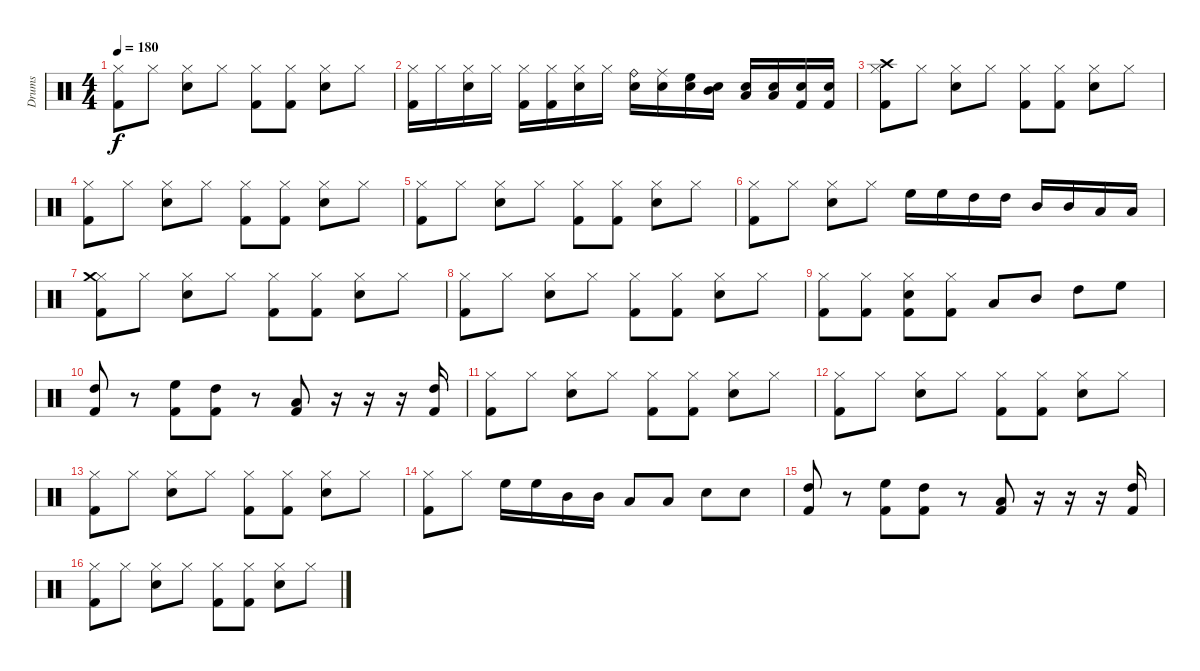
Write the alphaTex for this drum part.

\track ("Drums" "Drums") {instrument percussion}
\staff {score}
\articulation defaults
\ts (4 4)
\tempo 180
\clef neutral
\ks c
("Hi-Hat (closed)" "Kick (hit) 2").8{dy f} "Hi-Hat (closed)".8 ("Hi-Hat (closed)" "Snare (hit) 2").8 "Hi-Hat (closed)".8 ("Hi-Hat (closed)" "Kick (hit) 2").8 ("Hi-Hat (closed)" "Kick (hit) 2").8 ("Hi-Hat (closed)" "Snare (hit) 2").8 "Hi-Hat (closed)".8 |
("Hi-Hat (closed)" "Kick (hit) 2").16 "Hi-Hat (closed)".16 ("Hi-Hat (closed)" "Snare (hit) 2").16 "Hi-Hat (closed)".16 ("Hi-Hat (closed)" "Kick (hit) 2").16 ("Hi-Hat (closed)" "Kick (hit) 2").16 ("Hi-Hat (closed)" "Snare (hit) 2").16 "Hi-Hat (closed)".16 ("Ride (bell)" "Snare (hit) 2").16 ("Ride (middle)" "Snare (hit) 2").16 ("High Floor Tom (hit)" "Snare (hit) 2").16 ("Mid Tom (hit)" "Snare (hit) 2").16 ("Low Tom (hit)" "Snare (hit) 2").16 ("Low Floor Tom (hit)" "Snare (hit) 2").16 ("Kick (hit) 2" "Snare (hit) 2").16 ("Kick (hit) 2" "Snare (hit) 2").16 |
("Hi-Hat (closed)" "Crash high (hit)" "Kick (hit) 2").8 "Hi-Hat (closed)".8 ("Hi-Hat (closed)" "Snare (hit) 2").8 "Hi-Hat (closed)".8 ("Hi-Hat (closed)" "Kick (hit) 2").8 ("Hi-Hat (closed)" "Kick (hit) 2").8 ("Hi-Hat (closed)" "Snare (hit) 2").8 "Hi-Hat (closed)".8 |
("Hi-Hat (closed)" "Kick (hit) 2").8 "Hi-Hat (closed)".8 ("Hi-Hat (closed)" "Snare (hit) 2").8 "Hi-Hat (closed)".8 ("Hi-Hat (closed)" "Kick (hit) 2").8 ("Hi-Hat (closed)" "Kick (hit) 2").8 ("Hi-Hat (closed)" "Snare (hit) 2").8 "Hi-Hat (closed)".8 |
("Hi-Hat (closed)" "Kick (hit) 2").8 "Hi-Hat (closed)".8 ("Hi-Hat (closed)" "Snare (hit) 2").8 "Hi-Hat (closed)".8 ("Hi-Hat (closed)" "Kick (hit) 2").8 ("Hi-Hat (closed)" "Kick (hit) 2").8 ("Hi-Hat (closed)" "Snare (hit) 2").8 "Hi-Hat (closed)".8 |
("Hi-Hat (closed)" "Kick (hit) 2").8 "Hi-Hat (closed)".8 ("Hi-Hat (closed)" "Snare (hit) 2").8 "Hi-Hat (closed)".8 "High Floor Tom (hit)".16 "High Floor Tom (hit)".16 "High Tom (hit)".16 "High Tom (hit)".16 "Mid Tom (hit)".16 "Mid Tom (hit)".16 "Low Tom (hit)".16 "Low Tom (hit)".16 |
("Hi-Hat (closed)" "Crash medium (hit)" "Kick (hit) 2").8 "Hi-Hat (closed)".8 ("Hi-Hat (closed)" "Snare (hit) 2").8 "Hi-Hat (closed)".8 ("Hi-Hat (closed)" "Kick (hit) 2").8 ("Hi-Hat (closed)" "Kick (hit) 2").8 ("Hi-Hat (closed)" "Snare (hit) 2").8 "Hi-Hat (closed)".8 |
("Hi-Hat (closed)" "Kick (hit) 2").8 "Hi-Hat (closed)".8 ("Hi-Hat (closed)" "Snare (hit) 2").8 "Hi-Hat (closed)".8 ("Hi-Hat (closed)" "Kick (hit) 2").8 ("Hi-Hat (closed)" "Kick (hit) 2").8 ("Hi-Hat (closed)" "Snare (hit) 2").8 "Hi-Hat (closed)".8 |
("Hi-Hat (closed)" "Kick (hit) 2").8 ("Hi-Hat (closed)" "Kick (hit) 2").8 ("Hi-Hat (closed)" "Snare (hit) 2" "Kick (hit) 2").8 ("Hi-Hat (closed)" "Kick (hit) 2").8 "Low Tom (hit)".8 "Mid Tom (hit)".8 "High Tom (hit)".8 "High Floor Tom (hit)".8 |
("High Tom (hit)" "Kick (hit) 2").8 r.8 ("High Floor Tom (hit)" "Kick (hit) 2").8 ("High Tom (hit)" "Kick (hit) 2").8 r.8 ("Low Floor Tom (hit)" "Kick (hit) 2").8 r.16 r.16 r.16 ("High Tom (hit)" "Kick (hit) 2").16 |
("Hi-Hat (closed)" "Kick (hit) 2").8 "Hi-Hat (closed)".8 ("Hi-Hat (closed)" "Snare (hit) 2").8 "Hi-Hat (closed)".8 ("Hi-Hat (closed)" "Kick (hit) 2").8 ("Hi-Hat (closed)" "Kick (hit) 2").8 ("Hi-Hat (closed)" "Snare (hit) 2").8 "Hi-Hat (closed)".8 |
("Hi-Hat (closed)" "Kick (hit) 2").8 "Hi-Hat (closed)".8 ("Hi-Hat (closed)" "Snare (hit) 2").8 "Hi-Hat (closed)".8 ("Hi-Hat (closed)" "Kick (hit) 2").8 ("Hi-Hat (closed)" "Kick (hit) 2").8 ("Hi-Hat (closed)" "Snare (hit) 2").8 "Hi-Hat (closed)".8 |
("Hi-Hat (closed)" "Kick (hit) 2").8 "Hi-Hat (closed)".8 ("Hi-Hat (closed)" "Snare (hit) 2").8 "Hi-Hat (closed)".8 ("Hi-Hat (closed)" "Kick (hit) 2").8 ("Hi-Hat (closed)" "Kick (hit) 2").8 ("Hi-Hat (closed)" "Snare (hit) 2").8 "Hi-Hat (closed)".8 |
("Hi-Hat (closed)" "Kick (hit) 2").8 "Hi-Hat (closed)".8 "High Floor Tom (hit)".16 "High Floor Tom (hit)".16 "Mid Tom (hit)".16 "Mid Tom (hit)".16 "Low Floor Tom (hit)".8 "Low Floor Tom (hit)".8 "Snare (hit) 2".8 "Snare (hit) 2".8 |
("High Tom (hit)" "Kick (hit) 2").8 r.8 ("High Floor Tom (hit)" "Kick (hit) 2").8 ("High Tom (hit)" "Kick (hit) 2").8 r.8 ("Low Floor Tom (hit)" "Kick (hit) 2").8 r.16 r.16 r.16 ("High Tom (hit)" "Kick (hit) 2").16 |
("Hi-Hat (closed)" "Kick (hit) 2").8 "Hi-Hat (closed)".8 ("Hi-Hat (closed)" "Snare (hit) 2").8 "Hi-Hat (closed)".8 ("Hi-Hat (closed)" "Kick (hit) 2").8 ("Hi-Hat (closed)" "Kick (hit) 2").8 ("Hi-Hat (closed)" "Snare (hit) 2").8 "Hi-Hat (closed)".8
